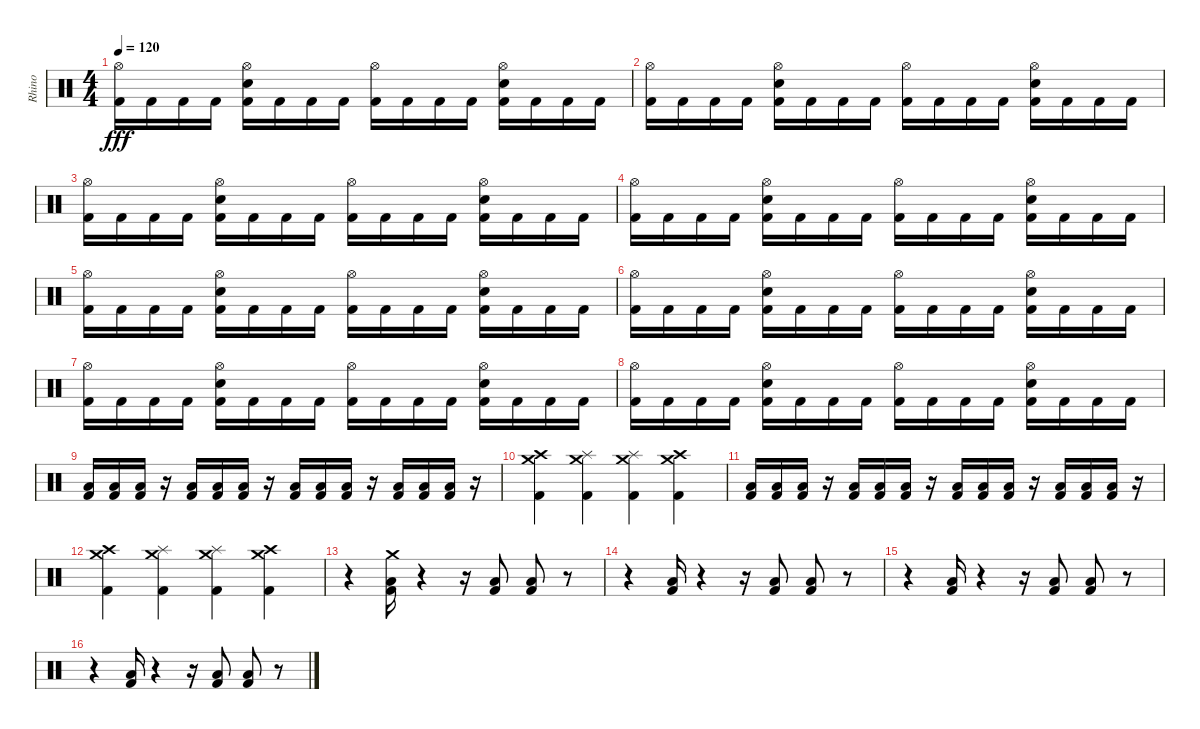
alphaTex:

\track ("Rhino" "Rhino") {instrument percussion}
\staff {score}
\articulation defaults
\ts (4 4)
\tempo 120
\clef neutral
\ks c
("Hi-Hat (open)" "Kick (hit) 2").16{dy fff} "Kick (hit) 2".16 "Kick (hit) 2".16 "Kick (hit) 2".16 ("Hi-Hat (open)" "Snare (hit) 2" "Kick (hit) 2").16 "Kick (hit) 2".16 "Kick (hit) 2".16 "Kick (hit) 2".16 ("Hi-Hat (open)" "Kick (hit) 2").16 "Kick (hit) 2".16 "Kick (hit) 2".16 "Kick (hit) 2".16 ("Hi-Hat (open)" "Snare (hit) 2" "Kick (hit) 2").16 "Kick (hit) 2".16 "Kick (hit) 2".16 "Kick (hit) 2".16 |
("Hi-Hat (open)" "Kick (hit) 2").16 "Kick (hit) 2".16 "Kick (hit) 2".16 "Kick (hit) 2".16 ("Hi-Hat (open)" "Snare (hit) 2" "Kick (hit) 2").16 "Kick (hit) 2".16 "Kick (hit) 2".16 "Kick (hit) 2".16 ("Hi-Hat (open)" "Kick (hit) 2").16 "Kick (hit) 2".16 "Kick (hit) 2".16 "Kick (hit) 2".16 ("Hi-Hat (open)" "Snare (hit) 2" "Kick (hit) 2").16 "Kick (hit) 2".16 "Kick (hit) 2".16 "Kick (hit) 2".16 |
("Hi-Hat (open)" "Kick (hit) 2").16 "Kick (hit) 2".16 "Kick (hit) 2".16 "Kick (hit) 2".16 ("Hi-Hat (open)" "Snare (hit) 2" "Kick (hit) 2").16 "Kick (hit) 2".16 "Kick (hit) 2".16 "Kick (hit) 2".16 ("Hi-Hat (open)" "Kick (hit) 2").16 "Kick (hit) 2".16 "Kick (hit) 2".16 "Kick (hit) 2".16 ("Hi-Hat (open)" "Snare (hit) 2" "Kick (hit) 2").16 "Kick (hit) 2".16 "Kick (hit) 2".16 "Kick (hit) 2".16 |
("Hi-Hat (open)" "Kick (hit) 2").16 "Kick (hit) 2".16 "Kick (hit) 2".16 "Kick (hit) 2".16 ("Hi-Hat (open)" "Snare (hit) 2" "Kick (hit) 2").16 "Kick (hit) 2".16 "Kick (hit) 2".16 "Kick (hit) 2".16 ("Hi-Hat (open)" "Kick (hit) 2").16 "Kick (hit) 2".16 "Kick (hit) 2".16 "Kick (hit) 2".16 ("Hi-Hat (open)" "Snare (hit) 2" "Kick (hit) 2").16 "Kick (hit) 2".16 "Kick (hit) 2".16 "Kick (hit) 2".16 |
("Hi-Hat (open)" "Kick (hit) 2").16 "Kick (hit) 2".16 "Kick (hit) 2".16 "Kick (hit) 2".16 ("Hi-Hat (open)" "Snare (hit) 2" "Kick (hit) 2").16 "Kick (hit) 2".16 "Kick (hit) 2".16 "Kick (hit) 2".16 ("Hi-Hat (open)" "Kick (hit) 2").16 "Kick (hit) 2".16 "Kick (hit) 2".16 "Kick (hit) 2".16 ("Hi-Hat (open)" "Snare (hit) 2" "Kick (hit) 2").16 "Kick (hit) 2".16 "Kick (hit) 2".16 "Kick (hit) 2".16 |
("Hi-Hat (open)" "Kick (hit) 2").16 "Kick (hit) 2".16 "Kick (hit) 2".16 "Kick (hit) 2".16 ("Hi-Hat (open)" "Snare (hit) 2" "Kick (hit) 2").16 "Kick (hit) 2".16 "Kick (hit) 2".16 "Kick (hit) 2".16 ("Hi-Hat (open)" "Kick (hit) 2").16 "Kick (hit) 2".16 "Kick (hit) 2".16 "Kick (hit) 2".16 ("Hi-Hat (open)" "Snare (hit) 2" "Kick (hit) 2").16 "Kick (hit) 2".16 "Kick (hit) 2".16 "Kick (hit) 2".16 |
("Hi-Hat (open)" "Kick (hit) 2").16 "Kick (hit) 2".16 "Kick (hit) 2".16 "Kick (hit) 2".16 ("Hi-Hat (open)" "Snare (hit) 2" "Kick (hit) 2").16 "Kick (hit) 2".16 "Kick (hit) 2".16 "Kick (hit) 2".16 ("Hi-Hat (open)" "Kick (hit) 2").16 "Kick (hit) 2".16 "Kick (hit) 2".16 "Kick (hit) 2".16 ("Hi-Hat (open)" "Snare (hit) 2" "Kick (hit) 2").16 "Kick (hit) 2".16 "Kick (hit) 2".16 "Kick (hit) 2".16 |
("Hi-Hat (open)" "Kick (hit) 2").16 "Kick (hit) 2".16 "Kick (hit) 2".16 "Kick (hit) 2".16 ("Hi-Hat (open)" "Snare (hit) 2" "Kick (hit) 2").16 "Kick (hit) 2".16 "Kick (hit) 2".16 "Kick (hit) 2".16 ("Hi-Hat (open)" "Kick (hit) 2").16 "Kick (hit) 2".16 "Kick (hit) 2".16 "Kick (hit) 2".16 ("Hi-Hat (open)" "Snare (hit) 2" "Kick (hit) 2").16 "Kick (hit) 2".16 "Kick (hit) 2".16 "Kick (hit) 2".16 |
("Low Floor Tom (hit)" "Kick (hit) 2").16 ("Low Floor Tom (hit)" "Kick (hit) 2").16 ("Low Floor Tom (hit)" "Kick (hit) 2").16 r.16 ("Low Floor Tom (hit)" "Kick (hit) 2").16 ("Low Floor Tom (hit)" "Kick (hit) 2").16 ("Low Floor Tom (hit)" "Kick (hit) 2").16 r.16 ("Low Floor Tom (hit)" "Kick (hit) 2").16 ("Low Floor Tom (hit)" "Kick (hit) 2").16 ("Low Floor Tom (hit)" "Kick (hit) 2").16 r.16 ("Low Floor Tom (hit)" "Kick (hit) 2").16 ("Low Floor Tom (hit)" "Kick (hit) 2").16 ("Low Floor Tom (hit)" "Kick (hit) 2").16 r.16 |
("Crash high (hit)" "Crash medium (hit)" "Kick (hit) 2").4 ("Splash (hit)" "Crash medium (hit)" "Kick (hit) 2").4 ("Splash (hit)" "Crash medium (hit)" "Kick (hit) 2").4 ("Crash high (hit)" "Crash medium (hit)" "Kick (hit) 2").4 |
("Low Floor Tom (hit)" "Kick (hit) 2").16 ("Low Floor Tom (hit)" "Kick (hit) 2").16 ("Low Floor Tom (hit)" "Kick (hit) 2").16 r.16 ("Low Floor Tom (hit)" "Kick (hit) 2").16 ("Low Floor Tom (hit)" "Kick (hit) 2").16 ("Low Floor Tom (hit)" "Kick (hit) 2").16 r.16 ("Low Floor Tom (hit)" "Kick (hit) 2").16 ("Low Floor Tom (hit)" "Kick (hit) 2").16 ("Low Floor Tom (hit)" "Kick (hit) 2").16 r.16 ("Low Floor Tom (hit)" "Kick (hit) 2").16 ("Low Floor Tom (hit)" "Kick (hit) 2").16 ("Low Floor Tom (hit)" "Kick (hit) 2").16 r.16 |
("Crash high (hit)" "Crash medium (hit)" "Kick (hit) 2").4 ("Splash (hit)" "Crash medium (hit)" "Kick (hit) 2").4 ("Splash (hit)" "Crash medium (hit)" "Kick (hit) 2").4 ("Crash high (hit)" "Crash medium (hit)" "Kick (hit) 2").4 |
r.4 ("Crash medium (hit)" "Low Floor Tom (hit)" "Kick (hit) 2").16 r.4 r.16 ("Low Floor Tom (hit)" "Kick (hit) 2").8 ("Low Floor Tom (hit)" "Kick (hit) 2").8 r.8 |
r.4 ("Low Floor Tom (hit)" "Kick (hit) 2").16 r.4 r.16 ("Low Floor Tom (hit)" "Kick (hit) 2").8 ("Low Floor Tom (hit)" "Kick (hit) 2").8 r.8 |
r.4 ("Low Floor Tom (hit)" "Kick (hit) 2").16 r.4 r.16 ("Low Floor Tom (hit)" "Kick (hit) 2").8 ("Low Floor Tom (hit)" "Kick (hit) 2").8 r.8 |
r.4 ("Low Floor Tom (hit)" "Kick (hit) 2").16 r.4 r.16 ("Low Floor Tom (hit)" "Kick (hit) 2").8 ("Low Floor Tom (hit)" "Kick (hit) 2").8 r.8
